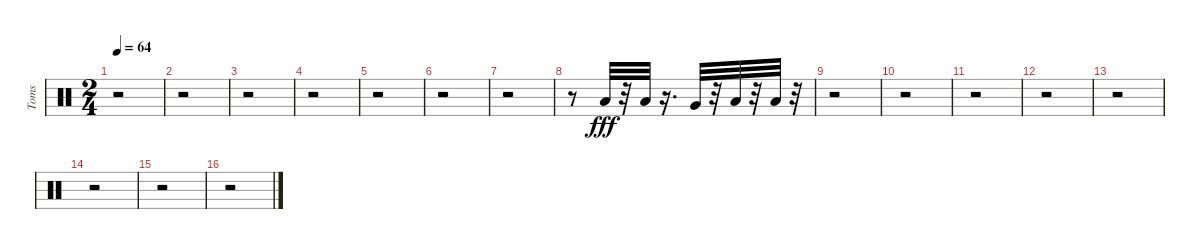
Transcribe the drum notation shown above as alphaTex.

\track ("Toms" "Toms") {instrument percussion}
\staff {score}
\articulation defaults
\ts (2 4)
\tempo 64
\clef neutral
\ks c
r.2{dy fff} |
r.2 |
r.2 |
r.2 |
r.2 |
r.2 |
r.2 |
r.8 "Low Tom (hit)".32 r.32 "Low Tom (hit)".32 r.16{d} "Very Low Tom (hit)".32 r.32 "Low Floor Tom (hit)".32 r.32 "Low Floor Tom (hit)".32 r.32 |
r.2 |
r.2 |
r.2 |
r.2 |
r.2 |
r.2 |
r.2 |
r.2
